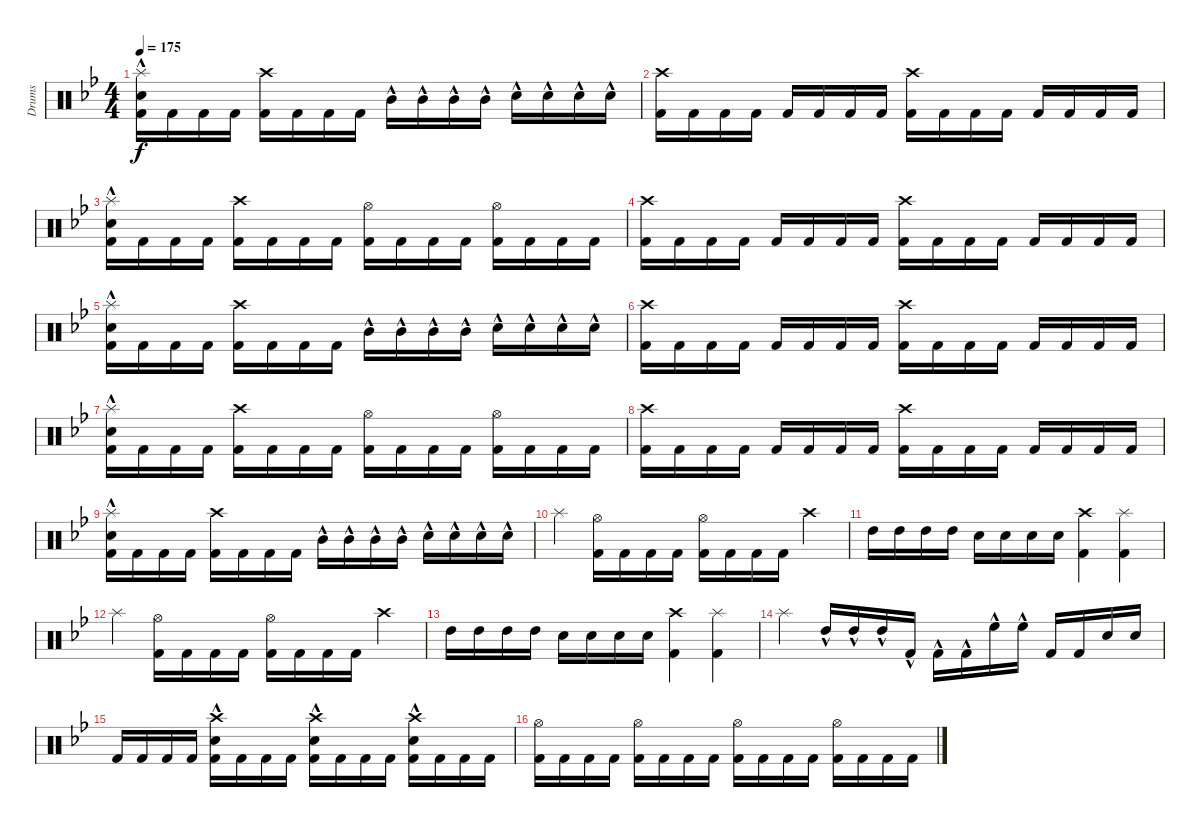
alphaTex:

\defaultSystemsLayout 4
\bracketExtendMode groupsimilarinstruments
\otherSystemsTrackNameOrientation horizontal
\track ("Drumkit" "Drums") {instrument percussion}
\staff {score}
\articulation defaults
\ts (4 4)
\tempo 175
\clef neutral
\scale
0.333333
\ks bb
("Kick (hit) 2"{acc forcenatural} "Snare (hit) 2"{hac acc forcenatural} "Splash (hit)"{acc forcenatural}).16{dy f} "Kick (hit) 2"{acc forcenatural}.16 "Kick (hit) 2"{acc forcenatural}.16 "Kick (hit) 2"{acc forcenatural}.16 ("Kick (hit) 2"{acc forcenatural} "Crash high (hit)"{acc forcenatural}).16 "Kick (hit) 2"{acc forcenatural}.16 "Kick (hit) 2"{acc forcenatural}.16 "Kick (hit) 2"{acc forcenatural}.16 "Mid Tom (hit)"{hac acc forcenatural}.16 "Mid Tom (hit)"{hac acc forcenatural}.16 "Mid Tom (hit)"{hac acc forcenatural}.16 "Mid Tom (hit)"{hac acc forcenatural}.16 "Snare (hit) 2"{hac acc forcenatural}.16 "Snare (hit) 2"{hac acc forcenatural}.16 "Snare (hit) 2"{hac acc forcenatural}.16 "Snare (hit) 2"{hac acc forcenatural}.16 |
("Kick (hit) 2"{acc forcenatural} "Crash high (hit)"{acc forcenatural}).16 "Kick (hit) 2"{acc forcenatural}.16 "Kick (hit) 2"{acc forcenatural}.16 "Kick (hit) 2"{acc forcenatural}.16 "Kick (hit) 2"{acc forcenatural}.16 "Kick (hit) 2"{acc forcenatural}.16 "Kick (hit) 2"{acc forcenatural}.16 "Kick (hit) 2"{acc forcenatural}.16 ("Kick (hit) 2"{acc forcenatural} "Crash high (hit)"{acc forcenatural}).16 "Kick (hit) 2"{acc forcenatural}.16 "Kick (hit) 2"{acc forcenatural}.16 "Kick (hit) 2"{acc forcenatural}.16 "Kick (hit) 2"{acc forcenatural}.16 "Kick (hit) 2"{acc forcenatural}.16 "Kick (hit) 2"{acc forcenatural}.16 "Kick (hit) 2"{acc forcenatural}.16 |
("Kick (hit) 2"{acc forcenatural} "Snare (hit) 2"{hac acc forcenatural} "Splash (hit)"{acc forcenatural}).16 "Kick (hit) 2"{acc forcenatural}.16 "Kick (hit) 2"{acc forcenatural}.16 "Kick (hit) 2"{acc forcenatural}.16 ("Kick (hit) 2"{acc forcenatural} "Crash high (hit)"{acc forcenatural}).16 "Kick (hit) 2"{acc forcenatural}.16 "Kick (hit) 2"{acc forcenatural}.16 "Kick (hit) 2"{acc forcenatural}.16 ("Kick (hit) 2"{acc forcenatural} "Hi-Hat (open)"{acc forcenatural}).16 "Kick (hit) 2"{acc forcenatural}.16 "Kick (hit) 2"{acc forcenatural}.16 "Kick (hit) 2"{acc forcenatural}.16 ("Kick (hit) 2"{acc forcenatural} "Hi-Hat (open)"{acc forcenatural}).16 "Kick (hit) 2"{acc forcenatural}.16 "Kick (hit) 2"{acc forcenatural}.16 "Kick (hit) 2"{acc forcenatural}.16 |
("Kick (hit) 2"{acc forcenatural} "Crash high (hit)"{acc forcenatural}).16 "Kick (hit) 2"{acc forcenatural}.16 "Kick (hit) 2"{acc forcenatural}.16 "Kick (hit) 2"{acc forcenatural}.16 "Kick (hit) 2"{acc forcenatural}.16 "Kick (hit) 2"{acc forcenatural}.16 "Kick (hit) 2"{acc forcenatural}.16 "Kick (hit) 2"{acc forcenatural}.16 ("Kick (hit) 2"{acc forcenatural} "Crash high (hit)"{acc forcenatural}).16 "Kick (hit) 2"{acc forcenatural}.16 "Kick (hit) 2"{acc forcenatural}.16 "Kick (hit) 2"{acc forcenatural}.16 "Kick (hit) 2"{acc forcenatural}.16 "Kick (hit) 2"{acc forcenatural}.16 "Kick (hit) 2"{acc forcenatural}.16 "Kick (hit) 2"{acc forcenatural}.16 |
("Kick (hit) 2"{acc forcenatural} "Snare (hit) 2"{hac acc forcenatural} "Splash (hit)"{acc forcenatural}).16 "Kick (hit) 2"{acc forcenatural}.16 "Kick (hit) 2"{acc forcenatural}.16 "Kick (hit) 2"{acc forcenatural}.16 ("Kick (hit) 2"{acc forcenatural} "Crash high (hit)"{acc forcenatural}).16 "Kick (hit) 2"{acc forcenatural}.16 "Kick (hit) 2"{acc forcenatural}.16 "Kick (hit) 2"{acc forcenatural}.16 "Mid Tom (hit)"{hac acc forcenatural}.16 "Mid Tom (hit)"{hac acc forcenatural}.16 "Mid Tom (hit)"{hac acc forcenatural}.16 "Mid Tom (hit)"{hac acc forcenatural}.16 "Snare (hit) 2"{hac acc forcenatural}.16 "Snare (hit) 2"{hac acc forcenatural}.16 "Snare (hit) 2"{hac acc forcenatural}.16 "Snare (hit) 2"{hac acc forcenatural}.16 |
("Kick (hit) 2"{acc forcenatural} "Crash high (hit)"{acc forcenatural}).16 "Kick (hit) 2"{acc forcenatural}.16 "Kick (hit) 2"{acc forcenatural}.16 "Kick (hit) 2"{acc forcenatural}.16 "Kick (hit) 2"{acc forcenatural}.16 "Kick (hit) 2"{acc forcenatural}.16 "Kick (hit) 2"{acc forcenatural}.16 "Kick (hit) 2"{acc forcenatural}.16 ("Kick (hit) 2"{acc forcenatural} "Crash high (hit)"{acc forcenatural}).16 "Kick (hit) 2"{acc forcenatural}.16 "Kick (hit) 2"{acc forcenatural}.16 "Kick (hit) 2"{acc forcenatural}.16 "Kick (hit) 2"{acc forcenatural}.16 "Kick (hit) 2"{acc forcenatural}.16 "Kick (hit) 2"{acc forcenatural}.16 "Kick (hit) 2"{acc forcenatural}.16 |
("Kick (hit) 2"{acc forcenatural} "Snare (hit) 2"{hac acc forcenatural} "Splash (hit)"{acc forcenatural}).16 "Kick (hit) 2"{acc forcenatural}.16 "Kick (hit) 2"{acc forcenatural}.16 "Kick (hit) 2"{acc forcenatural}.16 ("Kick (hit) 2"{acc forcenatural} "Crash high (hit)"{acc forcenatural}).16 "Kick (hit) 2"{acc forcenatural}.16 "Kick (hit) 2"{acc forcenatural}.16 "Kick (hit) 2"{acc forcenatural}.16 ("Kick (hit) 2"{acc forcenatural} "Hi-Hat (open)"{acc forcenatural}).16 "Kick (hit) 2"{acc forcenatural}.16 "Kick (hit) 2"{acc forcenatural}.16 "Kick (hit) 2"{acc forcenatural}.16 ("Kick (hit) 2"{acc forcenatural} "Hi-Hat (open)"{acc forcenatural}).16 "Kick (hit) 2"{acc forcenatural}.16 "Kick (hit) 2"{acc forcenatural}.16 "Kick (hit) 2"{acc forcenatural}.16 |
("Kick (hit) 2"{acc forcenatural} "Crash high (hit)"{acc forcenatural}).16 "Kick (hit) 2"{acc forcenatural}.16 "Kick (hit) 2"{acc forcenatural}.16 "Kick (hit) 2"{acc forcenatural}.16 "Kick (hit) 2"{acc forcenatural}.16 "Kick (hit) 2"{acc forcenatural}.16 "Kick (hit) 2"{acc forcenatural}.16 "Kick (hit) 2"{acc forcenatural}.16 ("Kick (hit) 2"{acc forcenatural} "Crash high (hit)"{acc forcenatural}).16 "Kick (hit) 2"{acc forcenatural}.16 "Kick (hit) 2"{acc forcenatural}.16 "Kick (hit) 2"{acc forcenatural}.16 "Kick (hit) 2"{acc forcenatural}.16 "Kick (hit) 2"{acc forcenatural}.16 "Kick (hit) 2"{acc forcenatural}.16 "Kick (hit) 2"{acc forcenatural}.16 |
("Kick (hit) 2"{acc forcenatural} "Snare (hit) 2"{hac acc forcenatural} "Splash (hit)"{acc forcenatural}).16 "Kick (hit) 2"{acc forcenatural}.16 "Kick (hit) 2"{acc forcenatural}.16 "Kick (hit) 2"{acc forcenatural}.16 ("Kick (hit) 2"{acc forcenatural} "Crash high (hit)"{acc forcenatural}).16 "Kick (hit) 2"{acc forcenatural}.16 "Kick (hit) 2"{acc forcenatural}.16 "Kick (hit) 2"{acc forcenatural}.16 "Mid Tom (hit)"{hac acc forcenatural}.16 "Mid Tom (hit)"{hac acc forcenatural}.16 "Mid Tom (hit)"{hac acc forcenatural}.16 "Mid Tom (hit)"{hac acc forcenatural}.16 "Snare (hit) 2"{hac acc forcenatural}.16 "Snare (hit) 2"{hac acc forcenatural}.16 "Snare (hit) 2"{hac acc forcenatural}.16 "Snare (hit) 2"{hac acc forcenatural}.16 |
\scale
0.333333 "Splash (hit)"{acc forcenatural}.4 ("Kick (hit) 2"{acc forcenatural} "Hi-Hat (open)"{acc forcenatural}).16 "Kick (hit) 2"{acc forcenatural}.16 "Kick (hit) 2"{acc forcenatural}.16 "Kick (hit) 2"{acc forcenatural}.16 ("Kick (hit) 2"{acc forcenatural} "Hi-Hat (open)"{acc forcenatural}).16 "Kick (hit) 2"{acc forcenatural}.16 "Kick (hit) 2"{acc forcenatural}.16 "Kick (hit) 2"{acc forcenatural}.16 "Crash high (hit)"{acc forcenatural}.4 |
\scale
0.333333 "High Tom (hit)"{acc forcenatural}.16 "High Tom (hit)"{acc forcenatural}.16 "High Tom (hit)"{acc forcenatural}.16 "High Tom (hit)"{acc forcenatural}.16 "Snare (hit) 2"{acc forcenatural}.16 "Snare (hit) 2"{acc forcenatural}.16 "Snare (hit) 2"{acc forcenatural}.16 "Snare (hit) 2"{acc forcenatural}.16 ("Crash high (hit)"{acc forcenatural} "Kick (hit) 2"{acc forcenatural}).4 ("Splash (hit)"{acc forcenatural} "Kick (hit) 2"{acc forcenatural}).4 |
\scale
0.333333 "Splash (hit)"{acc forcenatural}.4 ("Kick (hit) 2"{acc forcenatural} "Hi-Hat (open)"{acc forcenatural}).16 "Kick (hit) 2"{acc forcenatural}.16 "Kick (hit) 2"{acc forcenatural}.16 "Kick (hit) 2"{acc forcenatural}.16 ("Kick (hit) 2"{acc forcenatural} "Hi-Hat (open)"{acc forcenatural}).16 "Kick (hit) 2"{acc forcenatural}.16 "Kick (hit) 2"{acc forcenatural}.16 "Kick (hit) 2"{acc forcenatural}.16 "Crash high (hit)"{acc forcenatural}.4 |
\scale
0.333333 "High Tom (hit)"{acc forcenatural}.16 "High Tom (hit)"{acc forcenatural}.16 "High Tom (hit)"{acc forcenatural}.16 "High Tom (hit)"{acc forcenatural}.16 "Snare (hit) 2"{acc forcenatural}.16 "Snare (hit) 2"{acc forcenatural}.16 "Snare (hit) 2"{acc forcenatural}.16 "Snare (hit) 2"{acc forcenatural}.16 ("Crash high (hit)"{acc forcenatural} "Kick (hit) 2"{acc forcenatural}).4 ("Splash (hit)"{acc forcenatural} "Kick (hit) 2"{acc forcenatural}).4 |
\scale
0.333333 "Splash (hit)"{acc forcenatural}.4 "High Tom (hit)"{hac acc forcenatural}.16 "High Tom (hit)"{hac acc forcenatural}.16 "High Tom (hit)"{hac acc forcenatural}.16 "Kick (hit) 2"{hac acc forcenatural}.16 "Kick (hit) 2"{hac acc forcenatural}.16 "Kick (hit) 2"{hac acc forcenatural}.16 "High Floor Tom (hit)"{hac acc forcenatural}.16 "High Floor Tom (hit)"{hac acc forcenatural}.16 "Kick (hit) 2"{acc forcenatural}.16 "Kick (hit) 2"{acc forcenatural}.16 "Snare (hit) 2"{acc forcenatural}.16 "Snare (hit) 2"{acc forcenatural}.16 |
\scale
0.333333 "Kick (hit) 2"{acc forcenatural}.16 "Kick (hit) 2"{acc forcenatural}.16 "Kick (hit) 2"{acc forcenatural}.16 "Kick (hit) 2"{acc forcenatural}.16 ("Kick (hit) 2"{acc forcenatural} "Crash high (hit)"{acc forcenatural} "Snare (hit) 2"{hac acc forcenatural}).16 "Kick (hit) 2"{acc forcenatural}.16 "Kick (hit) 2"{acc forcenatural}.16 "Kick (hit) 2"{acc forcenatural}.16 ("Kick (hit) 2"{acc forcenatural} "Crash high (hit)"{acc forcenatural} "Snare (hit) 2"{hac acc forcenatural}).16 "Kick (hit) 2"{acc forcenatural}.16 "Kick (hit) 2"{acc forcenatural}.16 "Kick (hit) 2"{acc forcenatural}.16 ("Kick (hit) 2"{acc forcenatural} "Crash high (hit)"{acc forcenatural} "Snare (hit) 2"{hac acc forcenatural}).16 "Kick (hit) 2"{acc forcenatural}.16 "Kick (hit) 2"{acc forcenatural}.16 "Kick (hit) 2"{acc forcenatural}.16 |
\scale
0.333333 ("Kick (hit) 2"{acc forcenatural} "Hi-Hat (open)"{acc forcenatural}).16 "Kick (hit) 2"{acc forcenatural}.16 "Kick (hit) 2"{acc forcenatural}.16 "Kick (hit) 2"{acc forcenatural}.16 ("Kick (hit) 2"{acc forcenatural} "Hi-Hat (open)"{acc forcenatural}).16 "Kick (hit) 2"{acc forcenatural}.16 "Kick (hit) 2"{acc forcenatural}.16 "Kick (hit) 2"{acc forcenatural}.16 ("Kick (hit) 2"{acc forcenatural} "Hi-Hat (open)"{acc forcenatural}).16 "Kick (hit) 2"{acc forcenatural}.16 "Kick (hit) 2"{acc forcenatural}.16 "Kick (hit) 2"{acc forcenatural}.16 ("Kick (hit) 2"{acc forcenatural} "Hi-Hat (open)"{acc forcenatural}).16 "Kick (hit) 2"{acc forcenatural}.16 "Kick (hit) 2"{acc forcenatural}.16 "Kick (hit) 2"{acc forcenatural}.16
